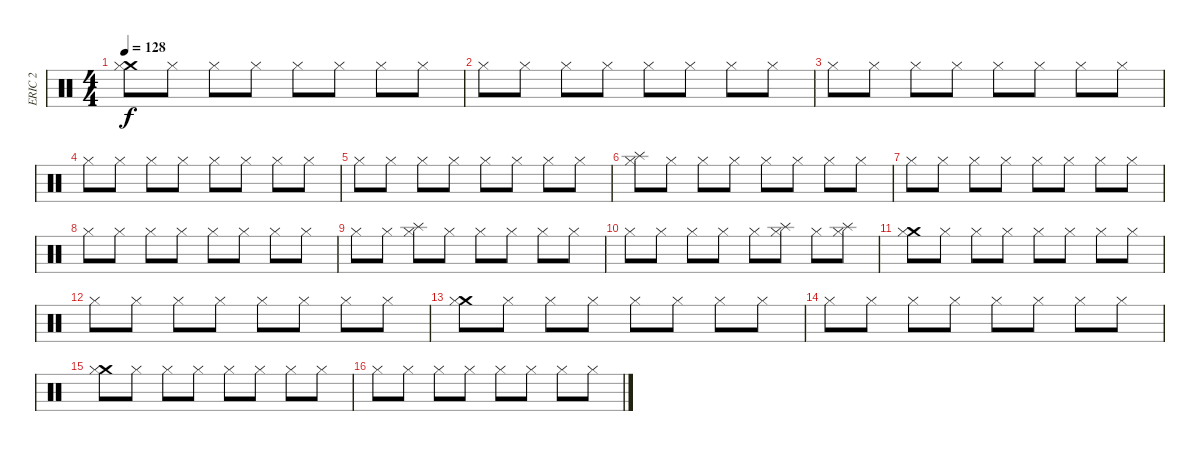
\track ("ERIC 2" "ERIC 2") {instrument percussion}
\staff {score}
\articulation defaults
\ts (4 4)
\tempo 128
\clef neutral
\ks c
("Crash medium (hit)" "Hi-Hat (closed)").8{dy f} "Hi-Hat (closed)".8 "Hi-Hat (closed)".8 "Hi-Hat (closed)".8 "Hi-Hat (closed)".8 "Hi-Hat (closed)".8 "Hi-Hat (closed)".8 "Hi-Hat (closed)".8 |
"Hi-Hat (closed)".8 "Hi-Hat (closed)".8 "Hi-Hat (closed)".8 "Hi-Hat (closed)".8 "Hi-Hat (closed)".8 "Hi-Hat (closed)".8 "Hi-Hat (closed)".8 "Hi-Hat (closed)".8 |
"Hi-Hat (closed)".8 "Hi-Hat (closed)".8 "Hi-Hat (closed)".8 "Hi-Hat (closed)".8 "Hi-Hat (closed)".8 "Hi-Hat (closed)".8 "Hi-Hat (closed)".8 "Hi-Hat (closed)".8 |
"Hi-Hat (closed)".8 "Hi-Hat (closed)".8 "Hi-Hat (closed)".8 "Hi-Hat (closed)".8 "Hi-Hat (closed)".8 "Hi-Hat (closed)".8 "Hi-Hat (closed)".8 "Hi-Hat (closed)".8 |
"Hi-Hat (closed)".8 "Hi-Hat (closed)".8 "Hi-Hat (closed)".8 "Hi-Hat (closed)".8 "Hi-Hat (closed)".8 "Hi-Hat (closed)".8 "Hi-Hat (closed)".8 "Hi-Hat (closed)".8 |
("Splash (hit)" "Hi-Hat (closed)").8 "Hi-Hat (closed)".8 "Hi-Hat (closed)".8 "Hi-Hat (closed)".8 "Hi-Hat (closed)".8 "Hi-Hat (closed)".8 "Hi-Hat (closed)".8 "Hi-Hat (closed)".8 |
"Hi-Hat (closed)".8 "Hi-Hat (closed)".8 "Hi-Hat (closed)".8 "Hi-Hat (closed)".8 "Hi-Hat (closed)".8 "Hi-Hat (closed)".8 "Hi-Hat (closed)".8 "Hi-Hat (closed)".8 |
"Hi-Hat (closed)".8 "Hi-Hat (closed)".8 "Hi-Hat (closed)".8 "Hi-Hat (closed)".8 "Hi-Hat (closed)".8 "Hi-Hat (closed)".8 "Hi-Hat (closed)".8 "Hi-Hat (closed)".8 |
"Hi-Hat (closed)".8 "Hi-Hat (closed)".8 ("Splash (hit)" "Hi-Hat (closed)").8 "Hi-Hat (closed)".8 "Hi-Hat (closed)".8 "Hi-Hat (closed)".8 "Hi-Hat (closed)".8 "Hi-Hat (closed)".8 |
"Hi-Hat (closed)".8 "Hi-Hat (closed)".8 "Hi-Hat (closed)".8 "Hi-Hat (closed)".8 "Hi-Hat (closed)".8 ("Splash (hit)" "Hi-Hat (closed)").8 "Hi-Hat (closed)".8 ("Splash (hit)" "Hi-Hat (closed)").8 |
("Crash medium (hit)" "Hi-Hat (closed)").8 "Hi-Hat (closed)".8 "Hi-Hat (closed)".8 "Hi-Hat (closed)".8 "Hi-Hat (closed)".8 "Hi-Hat (closed)".8 "Hi-Hat (closed)".8 "Hi-Hat (closed)".8 |
"Hi-Hat (closed)".8 "Hi-Hat (closed)".8 "Hi-Hat (closed)".8 "Hi-Hat (closed)".8 "Hi-Hat (closed)".8 "Hi-Hat (closed)".8 "Hi-Hat (closed)".8 "Hi-Hat (closed)".8 |
("Crash medium (hit)" "Hi-Hat (closed)").8 "Hi-Hat (closed)".8 "Hi-Hat (closed)".8 "Hi-Hat (closed)".8 "Hi-Hat (closed)".8 "Hi-Hat (closed)".8 "Hi-Hat (closed)".8 "Hi-Hat (closed)".8 |
"Hi-Hat (closed)".8 "Hi-Hat (closed)".8 "Hi-Hat (closed)".8 "Hi-Hat (closed)".8 "Hi-Hat (closed)".8 "Hi-Hat (closed)".8 "Hi-Hat (closed)".8 "Hi-Hat (closed)".8 |
("Crash medium (hit)" "Hi-Hat (closed)").8 "Hi-Hat (closed)".8 "Hi-Hat (closed)".8 "Hi-Hat (closed)".8 "Hi-Hat (closed)".8 "Hi-Hat (closed)".8 "Hi-Hat (closed)".8 "Hi-Hat (closed)".8 |
"Hi-Hat (closed)".8 "Hi-Hat (closed)".8 "Hi-Hat (closed)".8 "Hi-Hat (closed)".8 "Hi-Hat (closed)".8 "Hi-Hat (closed)".8 "Hi-Hat (closed)".8 "Hi-Hat (closed)".8
